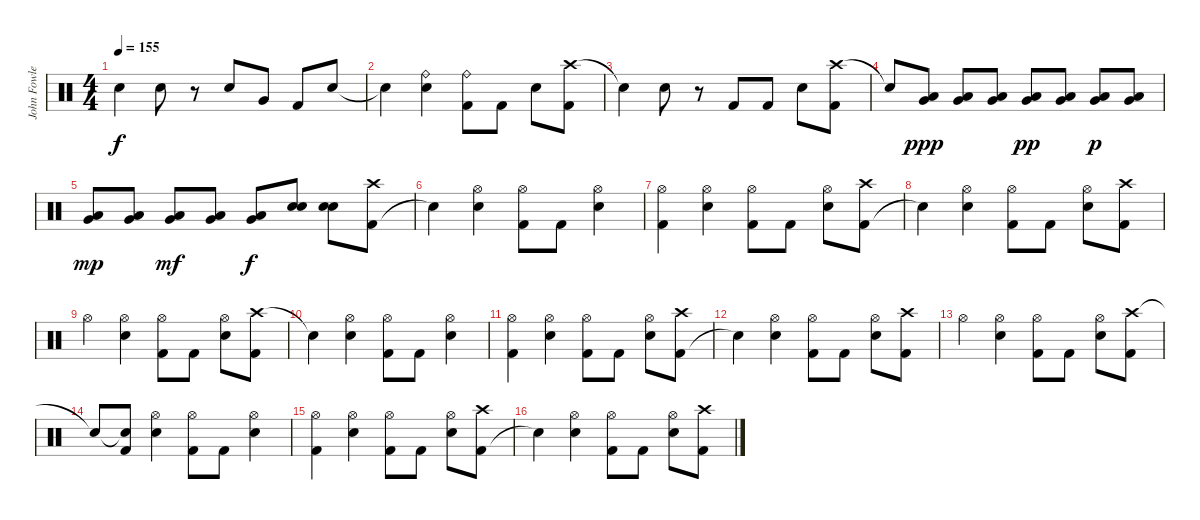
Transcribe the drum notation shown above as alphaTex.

\track ("John Fowler - Drums" "John Fowle") {instrument percussion}
\staff {score}
\articulation defaults
\ts (4 4)
\tempo 155
\clef neutral
\ks c "Snare (hit)"{t}.4{dy f} "Electric Snare (hit)".8
r.8 "Electric Snare (hit)".8 "Very Low Tom (hit)".8 "Kick (hit) 2".8 "Electric Snare (hit)".8 |
"Snare (hit)"{t}.4 ("Ride (bell)" "Electric Snare (hit)").4 ("Ride (bell)" "Kick (hit) 2").8 "Kick (hit) 2".8 "Electric Snare (hit)".8 ("Crash high (hit)" "Kick (hit) 2").8 |
"Snare (hit)"{t}.4 "Electric Snare (hit)".8 r.8 "Kick (hit) 2".8 "Kick (hit) 2".8 "Electric Snare (hit)".8 ("Crash high (hit)" "Kick (hit) 2").8 |
"Snare (hit)"{t}.8 ("Low Tom (hit)" "Very Low Tom (hit)").8{dy ppp} ("Very Low Tom (hit)" "Low Tom (hit)").8 ("Very Low Tom (hit)" "Low Tom (hit)").8 ("Very Low Tom (hit)" "Low Tom (hit)").8{dy pp} ("Very Low Tom (hit)" "Low Tom (hit)").8 ("Very Low Tom (hit)" "Low Tom (hit)").8{dy p} ("Very Low Tom (hit)" "Low Tom (hit)").8 |
("Very Low Tom (hit)" "Low Tom (hit)").8{dy mp} ("Very Low Tom (hit)" "Low Tom (hit)").8 ("Very Low Tom (hit)" "Low Tom (hit)").8{dy mf} ("Very Low Tom (hit)" "Low Tom (hit)").8 ("Very Low Tom (hit)" "Low Tom (hit)").8{dy f} ("Electric Snare (hit)" "Electric Snare (hit)").8{bd 60} ("Electric Snare (hit)" "Electric Snare (hit)").8{bd 60} ("Kick (hit) 2" "Crash high (hit)").8 |
"Snare (hit)"{t}.4 ("Electric Snare (hit)" "Hi-Hat (open)").4 ("Kick (hit) 2" "Hi-Hat (open)").8 "Kick (hit) 2".8 ("Hi-Hat (open)" "Electric Snare (hit)").4 |
("Kick (hit) 2" "Hi-Hat (open)").4 ("Electric Snare (hit)" "Hi-Hat (open)").4 ("Hi-Hat (open)" "Kick (hit) 2").8 "Kick (hit) 2".8 ("Electric Snare (hit)" "Hi-Hat (open)").8 ("Kick (hit) 2" "Crash high (hit)").8 |
"Snare (hit)"{t}.4 ("Electric Snare (hit)" "Hi-Hat (open)").4 ("Kick (hit) 2" "Hi-Hat (open)").8 "Kick (hit) 2".8 ("Electric Snare (hit)" "Hi-Hat (open)").8 ("Crash high (hit)" "Kick (hit) 2").8 |
"Hi-Hat (open)".4 ("Hi-Hat (open)" "Electric Snare (hit)").4 ("Hi-Hat (open)" "Kick (hit) 2").8 "Kick (hit) 2".8 ("Hi-Hat (open)" "Electric Snare (hit)").8 ("Crash high (hit)" "Kick (hit) 2").8 |
"Snare (hit)"{t}.4 ("Electric Snare (hit)" "Hi-Hat (open)").4 ("Hi-Hat (open)" "Kick (hit) 2").8 "Kick (hit) 2".8 ("Electric Snare (hit)" "Hi-Hat (open)").4 |
("Kick (hit) 2" "Hi-Hat (open)").4 ("Electric Snare (hit)" "Hi-Hat (open)").4 ("Hi-Hat (open)" "Kick (hit) 2").8 "Kick (hit) 2".8 ("Electric Snare (hit)" "Hi-Hat (open)").8 ("Kick (hit) 2" "Crash high (hit)").8 |
"Snare (hit)"{t}.4 ("Electric Snare (hit)" "Hi-Hat (open)").4 ("Kick (hit) 2" "Hi-Hat (open)").8 "Kick (hit) 2".8 ("Electric Snare (hit)" "Hi-Hat (open)").8 ("Crash high (hit)" "Kick (hit) 2").8 |
"Hi-Hat (open)".4 ("Hi-Hat (open)" "Electric Snare (hit)").4 ("Hi-Hat (open)" "Kick (hit) 2").8 "Kick (hit) 2".8 ("Hi-Hat (open)" "Electric Snare (hit)").8 ("Crash high (hit)" "Kick (hit) 2").8 |
"Snare (hit)"{t}.8 ("Snare (hit)"{t} "Kick (hit) 2").8 ("Electric Snare (hit)" "Hi-Hat (open)").4 ("Hi-Hat (open)" "Kick (hit) 2").8 "Kick (hit) 2".8 ("Electric Snare (hit)" "Hi-Hat (open)").4 |
("Kick (hit) 2" "Hi-Hat (open)").4 ("Electric Snare (hit)" "Hi-Hat (open)").4 ("Hi-Hat (open)" "Kick (hit) 2").8 "Kick (hit) 2".8 ("Electric Snare (hit)" "Hi-Hat (open)").8 ("Kick (hit) 2" "Crash high (hit)").8 |
"Snare (hit)"{t}.4 ("Electric Snare (hit)" "Hi-Hat (open)").4 ("Kick (hit) 2" "Hi-Hat (open)").8 "Kick (hit) 2".8 ("Electric Snare (hit)" "Hi-Hat (open)").8 ("Crash high (hit)" "Kick (hit) 2").8
